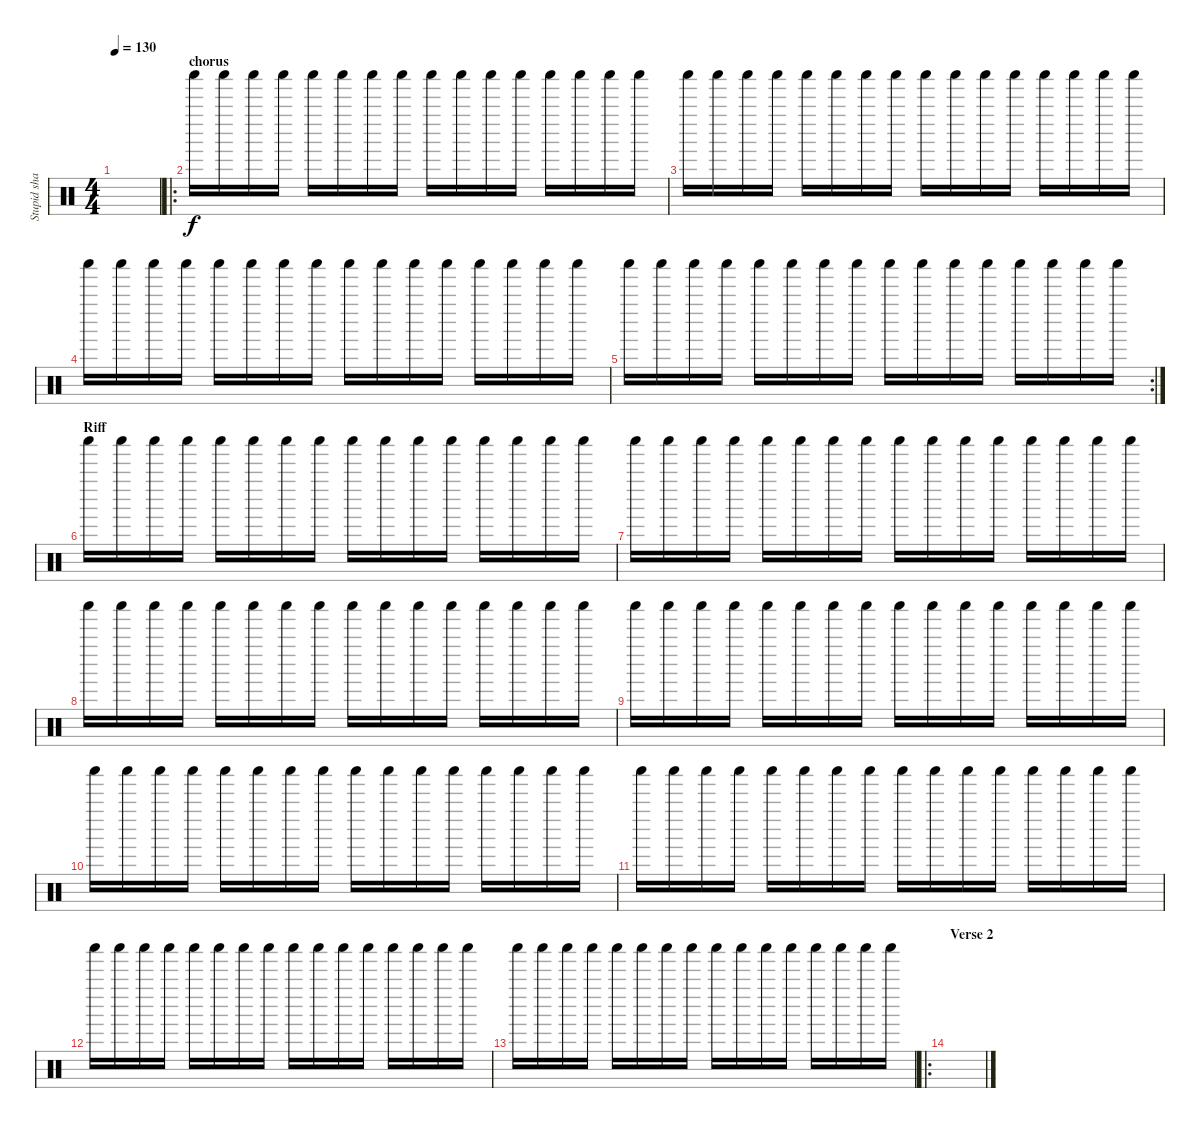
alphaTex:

\track ("Stupid shaker" "Stupid sha") {instrument percussion}
\staff {score}
\articulation defaults
\ts (4 4)
\tempo 130
\clef neutral
\ks c
|
\ro
\section ("" "chorus")
"Shaker (hit)".16 "Shaker (hit)".16 "Shaker (hit)".16 "Shaker (hit)".16 "Shaker (hit)".16 "Shaker (hit)".16 "Shaker (hit)".16 "Shaker (hit)".16 "Shaker (hit)".16 "Shaker (hit)".16 "Shaker (hit)".16 "Shaker (hit)".16 "Shaker (hit)".16 "Shaker (hit)".16 "Shaker (hit)".16 "Shaker (hit)".16 |
"Shaker (hit)".16 "Shaker (hit)".16 "Shaker (hit)".16 "Shaker (hit)".16 "Shaker (hit)".16 "Shaker (hit)".16 "Shaker (hit)".16 "Shaker (hit)".16 "Shaker (hit)".16 "Shaker (hit)".16 "Shaker (hit)".16 "Shaker (hit)".16 "Shaker (hit)".16 "Shaker (hit)".16 "Shaker (hit)".16 "Shaker (hit)".16 |
"Shaker (hit)".16 "Shaker (hit)".16 "Shaker (hit)".16 "Shaker (hit)".16 "Shaker (hit)".16 "Shaker (hit)".16 "Shaker (hit)".16 "Shaker (hit)".16 "Shaker (hit)".16 "Shaker (hit)".16 "Shaker (hit)".16 "Shaker (hit)".16 "Shaker (hit)".16 "Shaker (hit)".16 "Shaker (hit)".16 "Shaker (hit)".16 |
\rc 2 "Shaker (hit)".16 "Shaker (hit)".16 "Shaker (hit)".16 "Shaker (hit)".16 "Shaker (hit)".16 "Shaker (hit)".16 "Shaker (hit)".16 "Shaker (hit)".16 "Shaker (hit)".16 "Shaker (hit)".16 "Shaker (hit)".16 "Shaker (hit)".16 "Shaker (hit)".16 "Shaker (hit)".16 "Shaker (hit)".16 "Shaker (hit)".16
|
\section ("" "Riff")
"Shaker (hit)".16 "Shaker (hit)".16 "Shaker (hit)".16 "Shaker (hit)".16 "Shaker (hit)".16 "Shaker (hit)".16 "Shaker (hit)".16 "Shaker (hit)".16 "Shaker (hit)".16 "Shaker (hit)".16 "Shaker (hit)".16 "Shaker (hit)".16 "Shaker (hit)".16 "Shaker (hit)".16 "Shaker (hit)".16 "Shaker (hit)".16 |
"Shaker (hit)".16 "Shaker (hit)".16 "Shaker (hit)".16 "Shaker (hit)".16 "Shaker (hit)".16 "Shaker (hit)".16 "Shaker (hit)".16 "Shaker (hit)".16 "Shaker (hit)".16 "Shaker (hit)".16 "Shaker (hit)".16 "Shaker (hit)".16 "Shaker (hit)".16 "Shaker (hit)".16 "Shaker (hit)".16 "Shaker (hit)".16 |
"Shaker (hit)".16 "Shaker (hit)".16 "Shaker (hit)".16 "Shaker (hit)".16 "Shaker (hit)".16 "Shaker (hit)".16 "Shaker (hit)".16 "Shaker (hit)".16 "Shaker (hit)".16 "Shaker (hit)".16 "Shaker (hit)".16 "Shaker (hit)".16 "Shaker (hit)".16 "Shaker (hit)".16 "Shaker (hit)".16 "Shaker (hit)".16 |
"Shaker (hit)".16 "Shaker (hit)".16 "Shaker (hit)".16 "Shaker (hit)".16 "Shaker (hit)".16 "Shaker (hit)".16 "Shaker (hit)".16 "Shaker (hit)".16 "Shaker (hit)".16 "Shaker (hit)".16 "Shaker (hit)".16 "Shaker (hit)".16 "Shaker (hit)".16 "Shaker (hit)".16 "Shaker (hit)".16 "Shaker (hit)".16 |
"Shaker (hit)".16 "Shaker (hit)".16 "Shaker (hit)".16 "Shaker (hit)".16 "Shaker (hit)".16 "Shaker (hit)".16 "Shaker (hit)".16 "Shaker (hit)".16 "Shaker (hit)".16 "Shaker (hit)".16 "Shaker (hit)".16 "Shaker (hit)".16 "Shaker (hit)".16 "Shaker (hit)".16 "Shaker (hit)".16 "Shaker (hit)".16 |
"Shaker (hit)".16 "Shaker (hit)".16 "Shaker (hit)".16 "Shaker (hit)".16 "Shaker (hit)".16 "Shaker (hit)".16 "Shaker (hit)".16 "Shaker (hit)".16 "Shaker (hit)".16 "Shaker (hit)".16 "Shaker (hit)".16 "Shaker (hit)".16 "Shaker (hit)".16 "Shaker (hit)".16 "Shaker (hit)".16 "Shaker (hit)".16 |
"Shaker (hit)".16 "Shaker (hit)".16 "Shaker (hit)".16 "Shaker (hit)".16 "Shaker (hit)".16 "Shaker (hit)".16 "Shaker (hit)".16 "Shaker (hit)".16 "Shaker (hit)".16 "Shaker (hit)".16 "Shaker (hit)".16 "Shaker (hit)".16 "Shaker (hit)".16 "Shaker (hit)".16 "Shaker (hit)".16 "Shaker (hit)".16 |
"Shaker (hit)".16 "Shaker (hit)".16 "Shaker (hit)".16 "Shaker (hit)".16 "Shaker (hit)".16 "Shaker (hit)".16 "Shaker (hit)".16 "Shaker (hit)".16 "Shaker (hit)".16 "Shaker (hit)".16 "Shaker (hit)".16 "Shaker (hit)".16 "Shaker (hit)".16 "Shaker (hit)".16 "Shaker (hit)".16 "Shaker (hit)".16 |
\ro
\section ("" "Verse 2")
